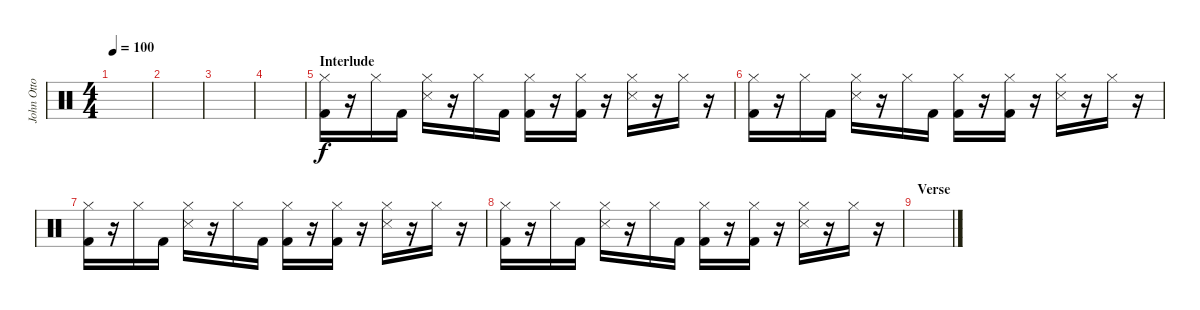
\track ("John Otto - Drums" "John Otto ") {instrument percussion}
\staff {score}
\articulation defaults
\ts (4 4)
\tempo 100
\clef neutral
\ks c
|
|
|
|
\section ("" "Interlude")
("Hi-Hat (closed)" "Kick (hit) 2").16 r.16 "Hi-Hat (closed)".16 "Kick (hit) 2".16 ("Hi-Hat (closed)" "Snare (side stick) 3").16 r.16 "Hi-Hat (closed)".16 "Kick (hit) 2".16 ("Hi-Hat (closed)" "Kick (hit) 2").16 r.16 ("Hi-Hat (closed)" "Kick (hit) 2").16 r.16 ("Hi-Hat (closed)" "Snare (side stick) 3").16 r.16 "Hi-Hat (closed)".16 r.16 |
("Hi-Hat (closed)" "Kick (hit) 2").16 r.16 "Hi-Hat (closed)".16 "Kick (hit) 2".16 ("Hi-Hat (closed)" "Snare (side stick) 3").16 r.16 "Hi-Hat (closed)".16 "Kick (hit) 2".16 ("Hi-Hat (closed)" "Kick (hit) 2").16 r.16 ("Hi-Hat (closed)" "Kick (hit) 2").16 r.16 ("Hi-Hat (closed)" "Snare (side stick) 3").16 r.16 "Hi-Hat (closed)".16 r.16 |
("Hi-Hat (closed)" "Kick (hit) 2").16 r.16 "Hi-Hat (closed)".16 "Kick (hit) 2".16 ("Hi-Hat (closed)" "Snare (side stick) 3").16 r.16 "Hi-Hat (closed)".16 "Kick (hit) 2".16 ("Hi-Hat (closed)" "Kick (hit) 2").16 r.16 ("Hi-Hat (closed)" "Kick (hit) 2").16 r.16 ("Hi-Hat (closed)" "Snare (side stick) 3").16 r.16 "Hi-Hat (closed)".16 r.16 |
("Hi-Hat (closed)" "Kick (hit) 2").16 r.16 "Hi-Hat (closed)".16 "Kick (hit) 2".16 ("Hi-Hat (closed)" "Snare (side stick) 3").16 r.16 "Hi-Hat (closed)".16 "Kick (hit) 2".16 ("Hi-Hat (closed)" "Kick (hit) 2").16 r.16 ("Hi-Hat (closed)" "Kick (hit) 2").16 r.16 ("Hi-Hat (closed)" "Snare (side stick) 3").16 r.16 "Hi-Hat (closed)".16 r.16 |
\section ("" "Verse")
